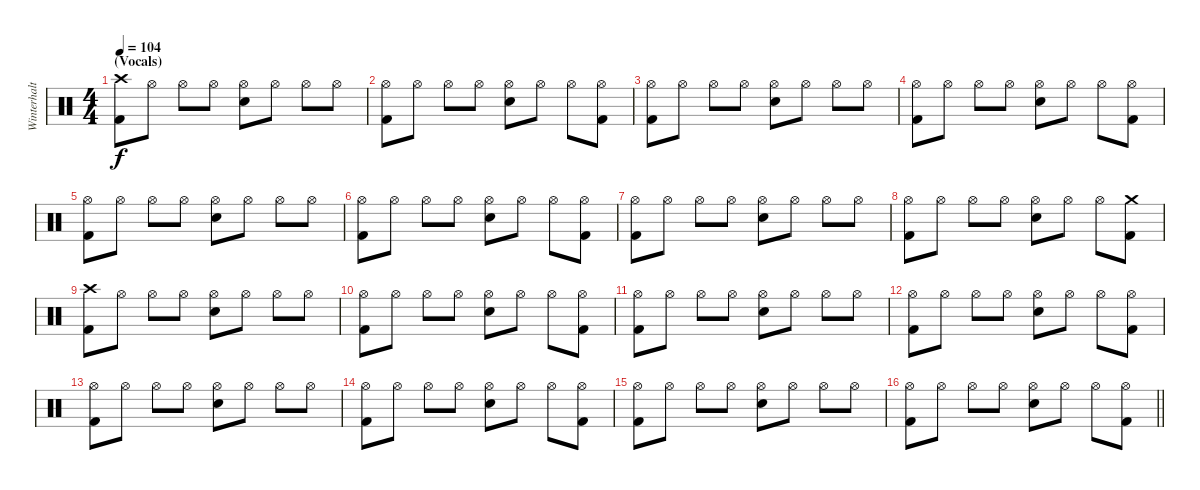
\track ("Winterhalten" "Winterhalt") {instrument percussion}
\staff {score}
\articulation defaults
\ts (4 4)
\section ("" "(Vocals)")
\tempo 104
\clef neutral
\ks c
("Kick (hit) 2" "Crash high (hit)").8{dy f} "Hi-Hat (open)".8 "Hi-Hat (open)".8 "Hi-Hat (open)".8 ("Hi-Hat (open)" "Snare (hit) 2").8 "Hi-Hat (open)".8 "Hi-Hat (open)".8 "Hi-Hat (open)".8 |
("Kick (hit) 2" "Hi-Hat (open)").8 "Hi-Hat (open)".8 "Hi-Hat (open)".8 "Hi-Hat (open)".8 ("Hi-Hat (open)" "Snare (hit) 2").8 "Hi-Hat (open)".8 "Hi-Hat (open)".8 ("Kick (hit) 2" "Hi-Hat (open)").8 |
("Kick (hit) 2" "Hi-Hat (open)").8 "Hi-Hat (open)".8 "Hi-Hat (open)".8 "Hi-Hat (open)".8 ("Hi-Hat (open)" "Snare (hit) 2").8 "Hi-Hat (open)".8 "Hi-Hat (open)".8 "Hi-Hat (open)".8 |
("Kick (hit) 2" "Hi-Hat (open)").8 "Hi-Hat (open)".8 "Hi-Hat (open)".8 "Hi-Hat (open)".8 ("Hi-Hat (open)" "Snare (hit) 2").8 "Hi-Hat (open)".8 "Hi-Hat (open)".8 ("Kick (hit) 2" "Hi-Hat (open)").8 |
("Kick (hit) 2" "Hi-Hat (open)").8 "Hi-Hat (open)".8 "Hi-Hat (open)".8 "Hi-Hat (open)".8 ("Hi-Hat (open)" "Snare (hit) 2").8 "Hi-Hat (open)".8 "Hi-Hat (open)".8 "Hi-Hat (open)".8 |
("Kick (hit) 2" "Hi-Hat (open)").8 "Hi-Hat (open)".8 "Hi-Hat (open)".8 "Hi-Hat (open)".8 ("Hi-Hat (open)" "Snare (hit) 2").8 "Hi-Hat (open)".8 "Hi-Hat (open)".8 ("Kick (hit) 2" "Hi-Hat (open)").8 |
("Kick (hit) 2" "Hi-Hat (open)").8 "Hi-Hat (open)".8 "Hi-Hat (open)".8 "Hi-Hat (open)".8 ("Hi-Hat (open)" "Snare (hit) 2").8 "Hi-Hat (open)".8 "Hi-Hat (open)".8 "Hi-Hat (open)".8 |
("Kick (hit) 2" "Hi-Hat (open)").8 "Hi-Hat (open)".8 "Hi-Hat (open)".8 "Hi-Hat (open)".8 ("Hi-Hat (open)" "Snare (hit) 2").8 "Hi-Hat (open)".8 "Hi-Hat (open)".8 ("Kick (hit) 2" "Crash medium (hit)").8 |
("Kick (hit) 2" "Crash high (hit)").8 "Hi-Hat (open)".8 "Hi-Hat (open)".8 "Hi-Hat (open)".8 ("Hi-Hat (open)" "Snare (hit) 2").8 "Hi-Hat (open)".8 "Hi-Hat (open)".8 "Hi-Hat (open)".8 |
("Kick (hit) 2" "Hi-Hat (open)").8 "Hi-Hat (open)".8 "Hi-Hat (open)".8 "Hi-Hat (open)".8 ("Hi-Hat (open)" "Snare (hit) 2").8 "Hi-Hat (open)".8 "Hi-Hat (open)".8 ("Kick (hit) 2" "Hi-Hat (open)").8 |
("Kick (hit) 2" "Hi-Hat (open)").8 "Hi-Hat (open)".8 "Hi-Hat (open)".8 "Hi-Hat (open)".8 ("Hi-Hat (open)" "Snare (hit) 2").8 "Hi-Hat (open)".8 "Hi-Hat (open)".8 "Hi-Hat (open)".8 |
("Kick (hit) 2" "Hi-Hat (open)").8 "Hi-Hat (open)".8 "Hi-Hat (open)".8 "Hi-Hat (open)".8 ("Hi-Hat (open)" "Snare (hit) 2").8 "Hi-Hat (open)".8 "Hi-Hat (open)".8 ("Kick (hit) 2" "Hi-Hat (open)").8 |
("Kick (hit) 2" "Hi-Hat (open)").8 "Hi-Hat (open)".8 "Hi-Hat (open)".8 "Hi-Hat (open)".8 ("Hi-Hat (open)" "Snare (hit) 2").8 "Hi-Hat (open)".8 "Hi-Hat (open)".8 "Hi-Hat (open)".8 |
("Kick (hit) 2" "Hi-Hat (open)").8 "Hi-Hat (open)".8 "Hi-Hat (open)".8 "Hi-Hat (open)".8 ("Hi-Hat (open)" "Snare (hit) 2").8 "Hi-Hat (open)".8 "Hi-Hat (open)".8 ("Kick (hit) 2" "Hi-Hat (open)").8 |
("Kick (hit) 2" "Hi-Hat (open)").8 "Hi-Hat (open)".8 "Hi-Hat (open)".8 "Hi-Hat (open)".8 ("Hi-Hat (open)" "Snare (hit) 2").8 "Hi-Hat (open)".8 "Hi-Hat (open)".8 "Hi-Hat (open)".8 |
\barLineRight lightlight
("Kick (hit) 2" "Hi-Hat (open)").8 "Hi-Hat (open)".8 "Hi-Hat (open)".8 "Hi-Hat (open)".8 ("Hi-Hat (open)" "Snare (hit) 2").8 "Hi-Hat (open)".8 "Hi-Hat (open)".8 ("Kick (hit) 2" "Hi-Hat (open)").8
